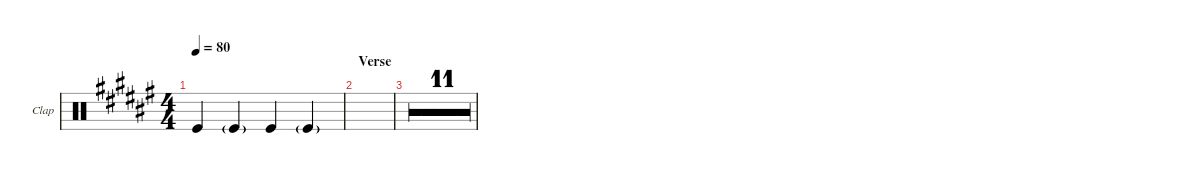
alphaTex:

\defaultSystemsLayout 4
\hideDynamics
\bracketExtendMode groupsimilarinstruments
\multiBarRest
\firstSystemTrackNameOrientation horizontal
\otherSystemsTrackNameOrientation horizontal
\track ("Hand Clap" "Clap") {multiBarRest instrument percussion}
\staff {score}
\articulation defaults
\ts (4 4)
\tempo 80
\clef neutral
\ks f# "Kick (hit)".4{dy pp} "Kick (hit)"{g}.4{dy ppp} "Kick (hit)".4{dy pp} "Kick (hit)"{g}.4{dy ppp}
|
\section ("" "Verse")
|
|
|
|
|
\barLineRight lightlight
|
|
|
|
|
|
\barLineRight lightlight
